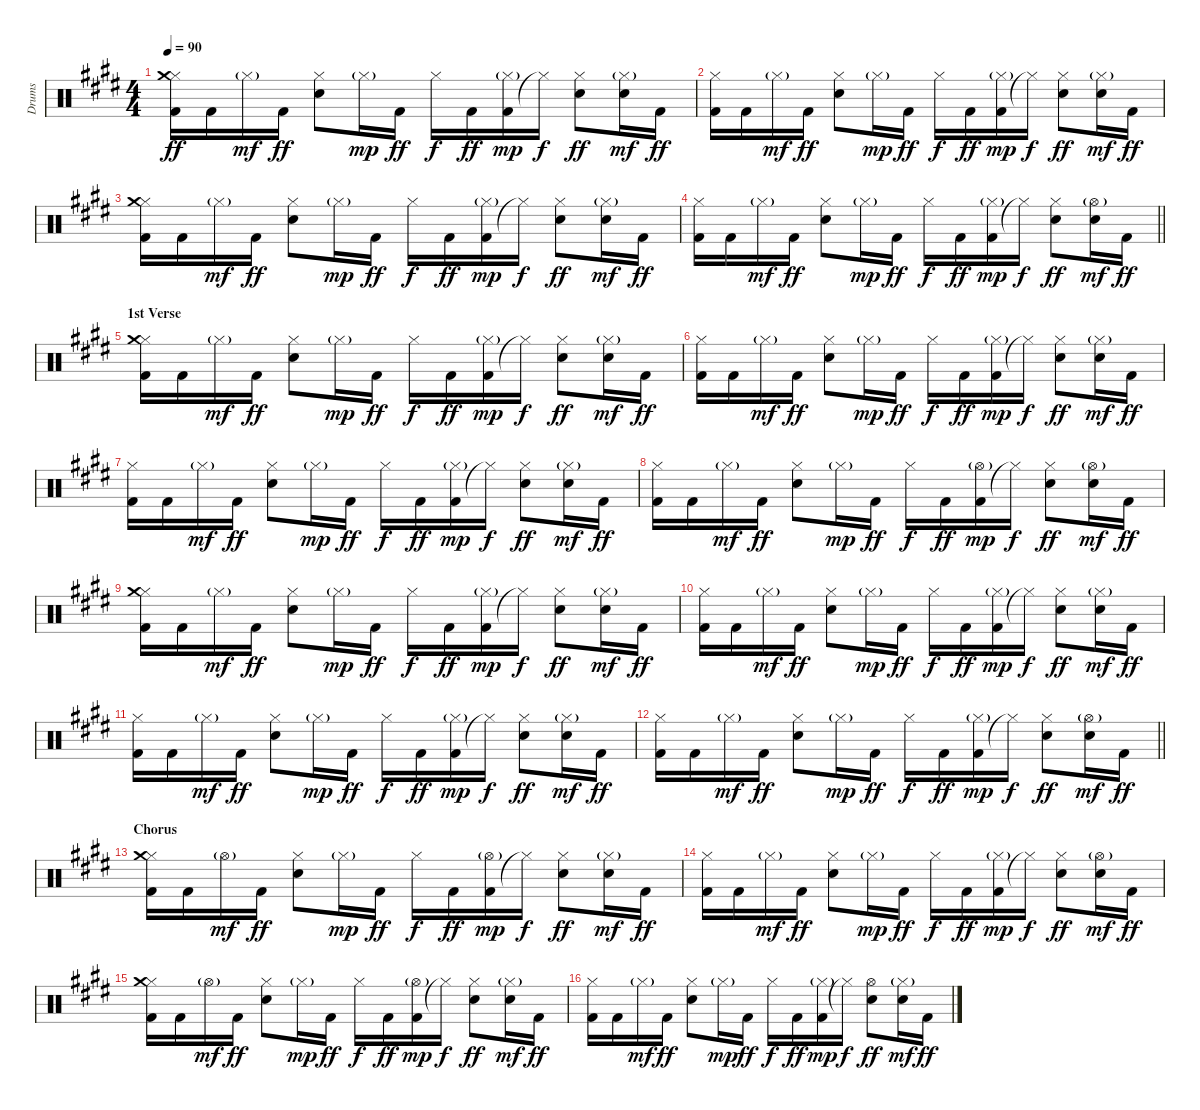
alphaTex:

\track ("Drums" "Drums") {instrument percussion}
\staff {score}
\articulation defaults
\ts (4 4)
\tempo 90
\clef neutral
\ks e
("Kick (hit) 2" "Hi-Hat (closed)" "Crash medium (hit)").16{dy ff} "Kick (hit) 2".16 "Hi-Hat (closed)"{g}.16{dy mf} "Kick (hit) 2".16{dy ff} ("Snare (hit) 2" "Hi-Hat (closed)").8 "Hi-Hat (closed)"{g}.16{dy mp} "Kick (hit) 2".16{dy ff} "Hi-Hat (closed)".16{dy f} "Kick (hit) 2".16{dy ff} ("Kick (hit) 2" "Hi-Hat (closed)"{g}).16{dy mp} "Hi-Hat (closed)"{t}.16{dy f} ("Snare (hit) 2" "Hi-Hat (closed)").8{dy ff} ("Snare (hit) 2" "Hi-Hat (closed)"{g}).16{dy mf} "Kick (hit) 2".16{dy ff} |
("Kick (hit) 2" "Hi-Hat (closed)").16 "Kick (hit) 2".16 "Hi-Hat (closed)"{g}.16{dy mf} "Kick (hit) 2".16{dy ff} ("Snare (hit) 2" "Hi-Hat (closed)").8 "Hi-Hat (closed)"{g}.16{dy mp} "Kick (hit) 2".16{dy ff} "Hi-Hat (closed)".16{dy f} "Kick (hit) 2".16{dy ff} ("Kick (hit) 2" "Hi-Hat (closed)"{g}).16{dy mp} "Hi-Hat (closed)"{t}.16{dy f} ("Snare (hit) 2" "Hi-Hat (closed)").8{dy ff} ("Snare (hit) 2" "Hi-Hat (closed)"{g}).16{dy mf} "Kick (hit) 2".16{dy ff} |
("Kick (hit) 2" "Hi-Hat (closed)" "Crash medium (hit)").16 "Kick (hit) 2".16 "Hi-Hat (closed)"{g}.16{dy mf} "Kick (hit) 2".16{dy ff} ("Snare (hit) 2" "Hi-Hat (closed)").8 "Hi-Hat (closed)"{g}.16{dy mp} "Kick (hit) 2".16{dy ff} "Hi-Hat (closed)".16{dy f} "Kick (hit) 2".16{dy ff} ("Kick (hit) 2" "Hi-Hat (closed)"{g}).16{dy mp} "Hi-Hat (closed)"{t}.16{dy f} ("Snare (hit) 2" "Hi-Hat (closed)").8{dy ff} ("Snare (hit) 2" "Hi-Hat (closed)"{g}).16{dy mf} "Kick (hit) 2".16{dy ff} |
\barLineRight lightlight
("Kick (hit) 2" "Hi-Hat (closed)").16 "Kick (hit) 2".16 "Hi-Hat (closed)"{g}.16{dy mf} "Kick (hit) 2".16{dy ff} ("Snare (hit) 2" "Hi-Hat (closed)").8 "Hi-Hat (closed)"{g}.16{dy mp} "Kick (hit) 2".16{dy ff} "Hi-Hat (closed)".16{dy f} "Kick (hit) 2".16{dy ff} ("Kick (hit) 2" "Hi-Hat (closed)"{g}).16{dy mp} "Hi-Hat (closed)"{t}.16{dy f} ("Snare (hit) 2" "Hi-Hat (closed)").8{dy ff} ("Snare (hit) 2" "Hi-Hat (open)"{g}).16{dy mf} "Kick (hit) 2".16{dy ff} |
\section ("" "1st Verse")
("Kick (hit) 2" "Hi-Hat (closed)" "Crash medium (hit)").16 "Kick (hit) 2".16 "Hi-Hat (closed)"{g}.16{dy mf} "Kick (hit) 2".16{dy ff} ("Snare (hit) 2" "Hi-Hat (closed)").8 "Hi-Hat (closed)"{g}.16{dy mp} "Kick (hit) 2".16{dy ff} "Hi-Hat (closed)".16{dy f} "Kick (hit) 2".16{dy ff} ("Kick (hit) 2" "Hi-Hat (closed)"{g}).16{dy mp} "Hi-Hat (closed)"{t}.16{dy f} ("Snare (hit) 2" "Hi-Hat (closed)").8{dy ff} ("Snare (hit) 2" "Hi-Hat (closed)"{g}).16{dy mf} "Kick (hit) 2".16{dy ff} |
("Kick (hit) 2" "Hi-Hat (closed)").16 "Kick (hit) 2".16 "Hi-Hat (closed)"{g}.16{dy mf} "Kick (hit) 2".16{dy ff} ("Snare (hit) 2" "Hi-Hat (closed)").8 "Hi-Hat (closed)"{g}.16{dy mp} "Kick (hit) 2".16{dy ff} "Hi-Hat (closed)".16{dy f} "Kick (hit) 2".16{dy ff} ("Kick (hit) 2" "Hi-Hat (closed)"{g}).16{dy mp} "Hi-Hat (closed)"{t}.16{dy f} ("Snare (hit) 2" "Hi-Hat (closed)").8{dy ff} ("Snare (hit) 2" "Hi-Hat (closed)"{g}).16{dy mf} "Kick (hit) 2".16{dy ff} |
("Kick (hit) 2" "Hi-Hat (closed)").16 "Kick (hit) 2".16 "Hi-Hat (closed)"{g}.16{dy mf} "Kick (hit) 2".16{dy ff} ("Snare (hit) 2" "Hi-Hat (closed)").8 "Hi-Hat (closed)"{g}.16{dy mp} "Kick (hit) 2".16{dy ff} "Hi-Hat (closed)".16{dy f} "Kick (hit) 2".16{dy ff} ("Kick (hit) 2" "Hi-Hat (closed)"{g}).16{dy mp} "Hi-Hat (closed)"{t}.16{dy f} ("Snare (hit) 2" "Hi-Hat (closed)").8{dy ff} ("Snare (hit) 2" "Hi-Hat (closed)"{g}).16{dy mf} "Kick (hit) 2".16{dy ff} |
("Kick (hit) 2" "Hi-Hat (closed)").16 "Kick (hit) 2".16 "Hi-Hat (closed)"{g}.16{dy mf} "Kick (hit) 2".16{dy ff} ("Snare (hit) 2" "Hi-Hat (closed)").8 "Hi-Hat (closed)"{g}.16{dy mp} "Kick (hit) 2".16{dy ff} "Hi-Hat (closed)".16{dy f} "Kick (hit) 2".16{dy ff} ("Kick (hit) 2" "Hi-Hat (open)"{g}).16{dy mp} "Hi-Hat (closed)"{t}.16{dy f} ("Snare (hit) 2" "Hi-Hat (closed)").8{dy ff} ("Snare (hit) 2" "Hi-Hat (open)"{g}).16{dy mf} "Kick (hit) 2".16{dy ff} |
("Kick (hit) 2" "Hi-Hat (closed)" "Crash medium (hit)").16 "Kick (hit) 2".16 "Hi-Hat (closed)"{g}.16{dy mf} "Kick (hit) 2".16{dy ff} ("Snare (hit) 2" "Hi-Hat (closed)").8 "Hi-Hat (closed)"{g}.16{dy mp} "Kick (hit) 2".16{dy ff} "Hi-Hat (closed)".16{dy f} "Kick (hit) 2".16{dy ff} ("Kick (hit) 2" "Hi-Hat (closed)"{g}).16{dy mp} "Hi-Hat (closed)"{t}.16{dy f} ("Snare (hit) 2" "Hi-Hat (closed)").8{dy ff} ("Snare (hit) 2" "Hi-Hat (closed)"{g}).16{dy mf} "Kick (hit) 2".16{dy ff} |
("Kick (hit) 2" "Hi-Hat (closed)").16 "Kick (hit) 2".16 "Hi-Hat (closed)"{g}.16{dy mf} "Kick (hit) 2".16{dy ff} ("Snare (hit) 2" "Hi-Hat (closed)").8 "Hi-Hat (closed)"{g}.16{dy mp} "Kick (hit) 2".16{dy ff} "Hi-Hat (closed)".16{dy f} "Kick (hit) 2".16{dy ff} ("Kick (hit) 2" "Hi-Hat (closed)"{g}).16{dy mp} "Hi-Hat (closed)"{t}.16{dy f} ("Snare (hit) 2" "Hi-Hat (closed)").8{dy ff} ("Snare (hit) 2" "Hi-Hat (closed)"{g}).16{dy mf} "Kick (hit) 2".16{dy ff} |
("Kick (hit) 2" "Hi-Hat (closed)").16 "Kick (hit) 2".16 "Hi-Hat (closed)"{g}.16{dy mf} "Kick (hit) 2".16{dy ff} ("Snare (hit) 2" "Hi-Hat (closed)").8 "Hi-Hat (closed)"{g}.16{dy mp} "Kick (hit) 2".16{dy ff} "Hi-Hat (closed)".16{dy f} "Kick (hit) 2".16{dy ff} ("Kick (hit) 2" "Hi-Hat (closed)"{g}).16{dy mp} "Hi-Hat (closed)"{t}.16{dy f} ("Snare (hit) 2" "Hi-Hat (closed)").8{dy ff} ("Snare (hit) 2" "Hi-Hat (closed)"{g}).16{dy mf} "Kick (hit) 2".16{dy ff} |
\barLineRight lightlight
("Kick (hit) 2" "Hi-Hat (closed)").16 "Kick (hit) 2".16 "Hi-Hat (closed)"{g}.16{dy mf} "Kick (hit) 2".16{dy ff} ("Snare (hit) 2" "Hi-Hat (closed)").8 "Hi-Hat (closed)"{g}.16{dy mp} "Kick (hit) 2".16{dy ff} "Hi-Hat (closed)".16{dy f} "Kick (hit) 2".16{dy ff} ("Kick (hit) 2" "Hi-Hat (closed)"{g}).16{dy mp} "Hi-Hat (closed)"{t}.16{dy f} ("Snare (hit) 2" "Hi-Hat (closed)").8{dy ff} ("Snare (hit) 2" "Hi-Hat (open)"{g}).16{dy mf} "Kick (hit) 2".16{dy ff} |
\section ("" "Chorus")
("Kick (hit) 2" "Hi-Hat (closed)" "Crash medium (hit)").16 "Kick (hit) 2".16 "Hi-Hat (open)"{g}.16{dy mf} "Kick (hit) 2".16{dy ff} ("Snare (hit) 2" "Hi-Hat (closed)").8 "Hi-Hat (closed)"{g}.16{dy mp} "Kick (hit) 2".16{dy ff} "Hi-Hat (closed)".16{dy f} "Kick (hit) 2".16{dy ff} ("Kick (hit) 2" "Hi-Hat (open)"{g}).16{dy mp} "Hi-Hat (closed)"{t}.16{dy f} ("Snare (hit) 2" "Hi-Hat (closed)").8{dy ff} ("Snare (hit) 2" "Hi-Hat (closed)"{g}).16{dy mf} "Kick (hit) 2".16{dy ff} |
("Kick (hit) 2" "Hi-Hat (closed)").16 "Kick (hit) 2".16 "Hi-Hat (closed)"{g}.16{dy mf} "Kick (hit) 2".16{dy ff} ("Snare (hit) 2" "Hi-Hat (closed)").8 "Hi-Hat (closed)"{g}.16{dy mp} "Kick (hit) 2".16{dy ff} "Hi-Hat (closed)".16{dy f} "Kick (hit) 2".16{dy ff} ("Kick (hit) 2" "Hi-Hat (closed)"{g}).16{dy mp} "Hi-Hat (closed)"{t}.16{dy f} ("Snare (hit) 2" "Hi-Hat (closed)").8{dy ff} ("Snare (hit) 2" "Hi-Hat (open)"{g}).16{dy mf} "Kick (hit) 2".16{dy ff} |
("Kick (hit) 2" "Hi-Hat (closed)" "Crash medium (hit)").16 "Kick (hit) 2".16 "Hi-Hat (open)"{g}.16{dy mf} "Kick (hit) 2".16{dy ff} ("Snare (hit) 2" "Hi-Hat (closed)").8 "Hi-Hat (closed)"{g}.16{dy mp} "Kick (hit) 2".16{dy ff} "Hi-Hat (closed)".16{dy f} "Kick (hit) 2".16{dy ff} ("Kick (hit) 2" "Hi-Hat (open)"{g}).16{dy mp} "Hi-Hat (closed)"{t}.16{dy f} ("Snare (hit) 2" "Hi-Hat (closed)").8{dy ff} ("Snare (hit) 2" "Hi-Hat (closed)"{g}).16{dy mf} "Kick (hit) 2".16{dy ff} |
("Kick (hit) 2" "Hi-Hat (closed)").16 "Kick (hit) 2".16 "Hi-Hat (closed)"{g}.16{dy mf} "Kick (hit) 2".16{dy ff} ("Snare (hit) 2" "Hi-Hat (closed)").8 "Hi-Hat (closed)"{g}.16{dy mp} "Kick (hit) 2".16{dy ff} "Hi-Hat (closed)".16{dy f} "Kick (hit) 2".16{dy ff} ("Kick (hit) 2" "Hi-Hat (closed)"{g}).16{dy mp} "Hi-Hat (closed)"{t}.16{dy f} ("Snare (hit) 2" "Hi-Hat (open)").8{dy ff} ("Snare (hit) 2" "Hi-Hat (closed)"{g}).16{dy mf} "Kick (hit) 2".16{dy ff}
